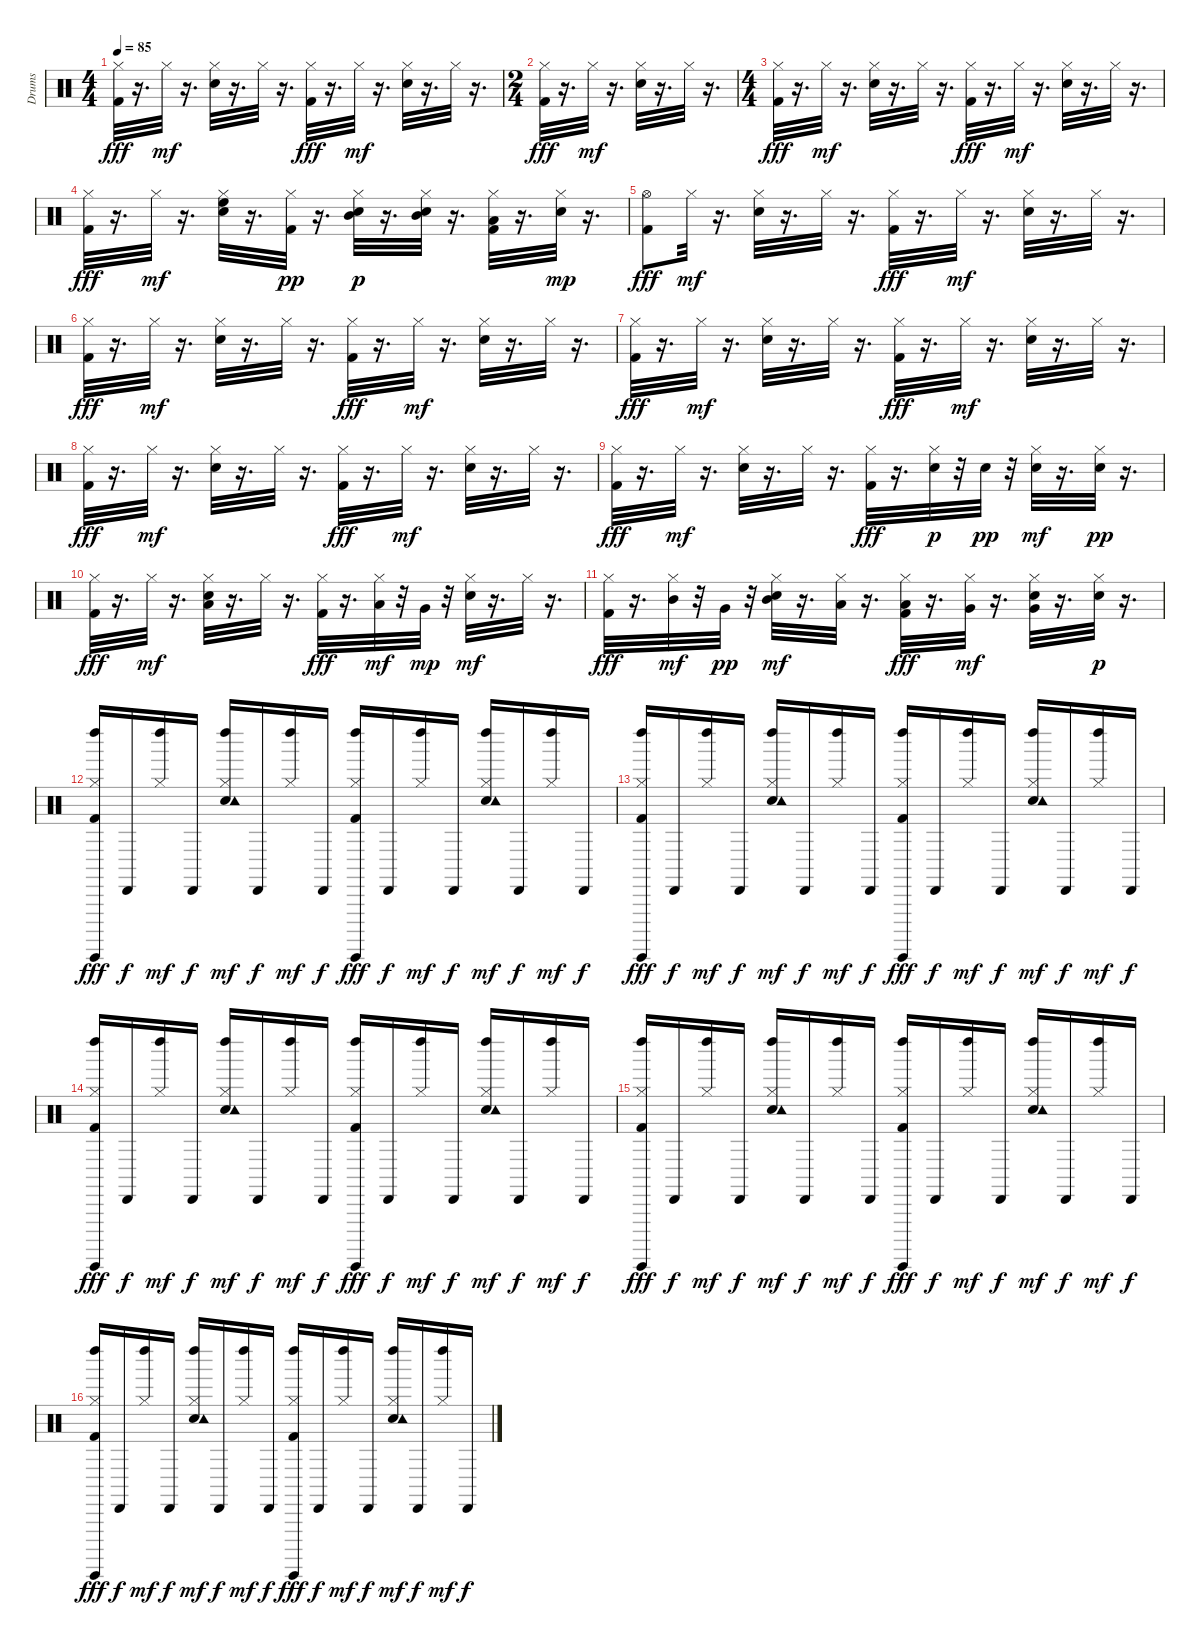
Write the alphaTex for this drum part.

\track ("Drums" "Drums") {instrument percussion}
\staff {score}
\articulation defaults
\ts (4 4)
\tempo 85
\clef neutral
\ks c
("Hi-Hat (closed)" "Kick (hit) 2").32{dy fff} r.16{d} "Hi-Hat (closed)".32{dy mf} r.16{d} ("Hi-Hat (closed)" "Electric Snare (hit)").32 r.16{d} "Hi-Hat (closed)".32 r.16{d} ("Hi-Hat (closed)" "Kick (hit) 2").32{dy fff} r.16{d} "Hi-Hat (closed)".32{dy mf} r.16{d} ("Hi-Hat (closed)" "Electric Snare (hit)").32 r.16{d} "Hi-Hat (closed)".32 r.16{d} |
\ts (2 4)
("Hi-Hat (closed)" "Kick (hit) 2").32{dy fff} r.16{d} "Hi-Hat (closed)".32{dy mf} r.16{d} ("Hi-Hat (closed)" "Electric Snare (hit)").32 r.16{d} "Hi-Hat (closed)".32 r.16{d} |
\ts (4 4)
("Hi-Hat (closed)" "Kick (hit) 2").32{dy fff} r.16{d} "Hi-Hat (closed)".32{dy mf} r.16{d} ("Hi-Hat (closed)" "Electric Snare (hit)").32 r.16{d} "Hi-Hat (closed)".32 r.16{d} ("Hi-Hat (closed)" "Kick (hit) 2").32{dy fff} r.16{d} "Hi-Hat (closed)".32{dy mf} r.16{d} ("Hi-Hat (closed)" "Electric Snare (hit)").32 r.16{d} "Hi-Hat (closed)".32 r.16{d} |
("Hi-Hat (closed)" "Kick (hit) 2").32{dy fff} r.16{d} "Hi-Hat (closed)".32{dy mf} r.16{d} ("High Floor Tom (hit)" "Hi-Hat (closed)" "Electric Snare (hit)").32 r.16{d} ("Hi-Hat (closed)" "Kick (hit) 2").32{dy pp} r.16{d} ("Mid Tom (hit)" "Hi-Hat (closed)" "Electric Snare (hit)").32{dy p} r.16{d} ("Mid Tom (hit)" "Hi-Hat (closed)" "Electric Snare (hit)").32 r.16{d} ("Low Tom (hit)" "Hi-Hat (closed)" "Kick (hit) 2").32 r.16{d} ("Hi-Hat (closed)" "Electric Snare (hit)").32{dy mp} r.16{d} |
("Hi-Hat (open)" "Kick (hit) 2").8{dy fff} "Hi-Hat (closed)".32{dy mf} r.16{d} ("Hi-Hat (closed)" "Electric Snare (hit)").32 r.16{d} "Hi-Hat (closed)".32 r.16{d} ("Hi-Hat (closed)" "Kick (hit) 2").32{dy fff} r.16{d} "Hi-Hat (closed)".32{dy mf} r.16{d} ("Hi-Hat (closed)" "Electric Snare (hit)").32 r.16{d} "Hi-Hat (closed)".32 r.16{d} |
("Hi-Hat (closed)" "Kick (hit) 2").32{dy fff} r.16{d} "Hi-Hat (closed)".32{dy mf} r.16{d} ("Hi-Hat (closed)" "Electric Snare (hit)").32 r.16{d} "Hi-Hat (closed)".32 r.16{d} ("Hi-Hat (closed)" "Kick (hit) 2").32{dy fff} r.16{d} "Hi-Hat (closed)".32{dy mf} r.16{d} ("Hi-Hat (closed)" "Electric Snare (hit)").32 r.16{d} "Hi-Hat (closed)".32 r.16{d} |
("Hi-Hat (closed)" "Kick (hit) 2").32{dy fff} r.16{d} "Hi-Hat (closed)".32{dy mf} r.16{d} ("Hi-Hat (closed)" "Electric Snare (hit)").32 r.16{d} "Hi-Hat (closed)".32 r.16{d} ("Hi-Hat (closed)" "Kick (hit) 2").32{dy fff} r.16{d} "Hi-Hat (closed)".32{dy mf} r.16{d} ("Hi-Hat (closed)" "Electric Snare (hit)").32 r.16{d} "Hi-Hat (closed)".32 r.16{d} |
("Hi-Hat (closed)" "Kick (hit) 2").32{dy fff} r.16{d} "Hi-Hat (closed)".32{dy mf} r.16{d} ("Hi-Hat (closed)" "Electric Snare (hit)").32 r.16{d} "Hi-Hat (closed)".32 r.16{d} ("Hi-Hat (closed)" "Kick (hit) 2").32{dy fff} r.16{d} "Hi-Hat (closed)".32{dy mf} r.16{d} ("Hi-Hat (closed)" "Electric Snare (hit)").32 r.16{d} "Hi-Hat (closed)".32 r.16{d} |
("Hi-Hat (closed)" "Kick (hit) 2").32{dy fff} r.16{d} "Hi-Hat (closed)".32{dy mf} r.16{d} ("Hi-Hat (closed)" "Electric Snare (hit)").32 r.16{d} "Hi-Hat (closed)".32 r.16{d} ("Hi-Hat (closed)" "Kick (hit) 2").32{dy fff} r.16{d} ("Hi-Hat (closed)" "Electric Snare (hit)").32{dy p} r.32 "Electric Snare (hit)".32{dy pp} r.32 ("Hi-Hat (closed)" "Electric Snare (hit)").32{dy mf} r.16{d} ("Hi-Hat (closed)" "Snare (hit) 2").32{dy pp} r.16{d} |
("Hi-Hat (closed)" "Kick (hit) 2").32{dy fff} r.16{d} "Hi-Hat (closed)".32{dy mf} r.16{d} ("Low Tom (hit)" "Hi-Hat (closed)" "Electric Snare (hit)").32 r.16{d} "Hi-Hat (closed)".32 r.16{d} ("Hi-Hat (closed)" "Kick (hit) 2").32{dy fff} r.16{d} ("Low Tom (hit)" "Hi-Hat (closed)").32{dy mf} r.32 "Very Low Tom (hit)".32{dy mp} r.32 ("Hi-Hat (closed)" "Electric Snare (hit)").32{dy mf} r.16{d} "Hi-Hat (closed)".32 r.16{d} |
("Hi-Hat (closed)" "Kick (hit) 2").32{dy fff} r.16{d} ("Mid Tom (hit)" "Hi-Hat (closed)").32{dy mf} r.32 "Very Low Tom (hit)".32{dy pp} r.32 ("Mid Tom (hit)" "Hi-Hat (closed)" "Electric Snare (hit)").32{dy mf} r.16{d} ("Low Tom (hit)" "Hi-Hat (closed)").32 r.16{d} ("Low Tom (hit)" "Hi-Hat (closed)" "Kick (hit) 2").32{dy fff} r.16{d} ("Very Low Tom (hit)" "Hi-Hat (closed)").32{dy mf} r.16{d} ("Very Low Tom (hit)" "Hi-Hat (closed)" "Electric Snare (hit)").32 r.16{d} ("Hi-Hat (closed)" "Electric Snare (hit)").32{dy p} r.16{d} |
("Hi-Hat (closed)" "Kick (hit) 2" "Guiro (hit)" "Left Maraca (hit)").16{dy fff} "Cabasa (hit)".16{dy f} ("Hi-Hat (closed)" "Left Maraca (hit)").16{dy mf} "Cabasa (hit)".16{dy f} ("Hi-Hat (closed)" "Electric Snare (hit)" "Left Maraca (hit)" "Tambourine (hit)").16{dy mf} "Cabasa (hit)".16{dy f} ("Hi-Hat (closed)" "Left Maraca (hit)").16{dy mf} "Cabasa (hit)".16{dy f} ("Hi-Hat (closed)" "Kick (hit) 2" "Guiro (hit)" "Left Maraca (hit)").16{dy fff} "Cabasa (hit)".16{dy f} ("Hi-Hat (closed)" "Left Maraca (hit)").16{dy mf} "Cabasa (hit)".16{dy f} ("Hi-Hat (closed)" "Electric Snare (hit)" "Left Maraca (hit)" "Tambourine (hit)").16{dy mf} "Cabasa (hit)".16{dy f} ("Hi-Hat (closed)" "Left Maraca (hit)").16{dy mf} "Cabasa (hit)".16{dy f} |
("Hi-Hat (closed)" "Kick (hit) 2" "Guiro (hit)" "Left Maraca (hit)").16{dy fff} "Cabasa (hit)".16{dy f} ("Hi-Hat (closed)" "Left Maraca (hit)").16{dy mf} "Cabasa (hit)".16{dy f} ("Hi-Hat (closed)" "Electric Snare (hit)" "Left Maraca (hit)" "Tambourine (hit)").16{dy mf} "Cabasa (hit)".16{dy f} ("Hi-Hat (closed)" "Left Maraca (hit)").16{dy mf} "Cabasa (hit)".16{dy f} ("Hi-Hat (closed)" "Kick (hit) 2" "Guiro (hit)" "Left Maraca (hit)").16{dy fff} "Cabasa (hit)".16{dy f} ("Hi-Hat (closed)" "Left Maraca (hit)").16{dy mf} "Cabasa (hit)".16{dy f} ("Hi-Hat (closed)" "Electric Snare (hit)" "Left Maraca (hit)" "Tambourine (hit)").16{dy mf} "Cabasa (hit)".16{dy f} ("Hi-Hat (closed)" "Left Maraca (hit)").16{dy mf} "Cabasa (hit)".16{dy f} |
("Hi-Hat (closed)" "Kick (hit) 2" "Guiro (hit)" "Left Maraca (hit)").16{dy fff} "Cabasa (hit)".16{dy f} ("Hi-Hat (closed)" "Left Maraca (hit)").16{dy mf} "Cabasa (hit)".16{dy f} ("Hi-Hat (closed)" "Electric Snare (hit)" "Left Maraca (hit)" "Tambourine (hit)").16{dy mf} "Cabasa (hit)".16{dy f} ("Hi-Hat (closed)" "Left Maraca (hit)").16{dy mf} "Cabasa (hit)".16{dy f} ("Hi-Hat (closed)" "Kick (hit) 2" "Guiro (hit)" "Left Maraca (hit)").16{dy fff} "Cabasa (hit)".16{dy f} ("Hi-Hat (closed)" "Left Maraca (hit)").16{dy mf} "Cabasa (hit)".16{dy f} ("Hi-Hat (closed)" "Electric Snare (hit)" "Left Maraca (hit)" "Tambourine (hit)").16{dy mf} "Cabasa (hit)".16{dy f} ("Hi-Hat (closed)" "Left Maraca (hit)").16{dy mf} "Cabasa (hit)".16{dy f} |
("Hi-Hat (closed)" "Kick (hit) 2" "Guiro (hit)" "Left Maraca (hit)").16{dy fff} "Cabasa (hit)".16{dy f} ("Hi-Hat (closed)" "Left Maraca (hit)").16{dy mf} "Cabasa (hit)".16{dy f} ("Hi-Hat (closed)" "Electric Snare (hit)" "Left Maraca (hit)" "Tambourine (hit)").16{dy mf} "Cabasa (hit)".16{dy f} ("Hi-Hat (closed)" "Left Maraca (hit)").16{dy mf} "Cabasa (hit)".16{dy f} ("Hi-Hat (closed)" "Kick (hit) 2" "Guiro (hit)" "Left Maraca (hit)").16{dy fff} "Cabasa (hit)".16{dy f} ("Hi-Hat (closed)" "Left Maraca (hit)").16{dy mf} "Cabasa (hit)".16{dy f} ("Hi-Hat (closed)" "Electric Snare (hit)" "Left Maraca (hit)" "Tambourine (hit)").16{dy mf} "Cabasa (hit)".16{dy f} ("Hi-Hat (closed)" "Left Maraca (hit)").16{dy mf} "Cabasa (hit)".16{dy f} |
("Hi-Hat (closed)" "Kick (hit) 2" "Guiro (hit)" "Left Maraca (hit)").16{dy fff} "Cabasa (hit)".16{dy f} ("Hi-Hat (closed)" "Left Maraca (hit)").16{dy mf} "Cabasa (hit)".16{dy f} ("Hi-Hat (closed)" "Electric Snare (hit)" "Left Maraca (hit)" "Tambourine (hit)").16{dy mf} "Cabasa (hit)".16{dy f} ("Hi-Hat (closed)" "Left Maraca (hit)").16{dy mf} "Cabasa (hit)".16{dy f} ("Hi-Hat (closed)" "Kick (hit) 2" "Guiro (hit)" "Left Maraca (hit)").16{dy fff} "Cabasa (hit)".16{dy f} ("Hi-Hat (closed)" "Left Maraca (hit)").16{dy mf} "Cabasa (hit)".16{dy f} ("Hi-Hat (closed)" "Electric Snare (hit)" "Left Maraca (hit)" "Tambourine (hit)").16{dy mf} "Cabasa (hit)".16{dy f} ("Hi-Hat (closed)" "Left Maraca (hit)").16{dy mf} "Cabasa (hit)".16{dy f}
